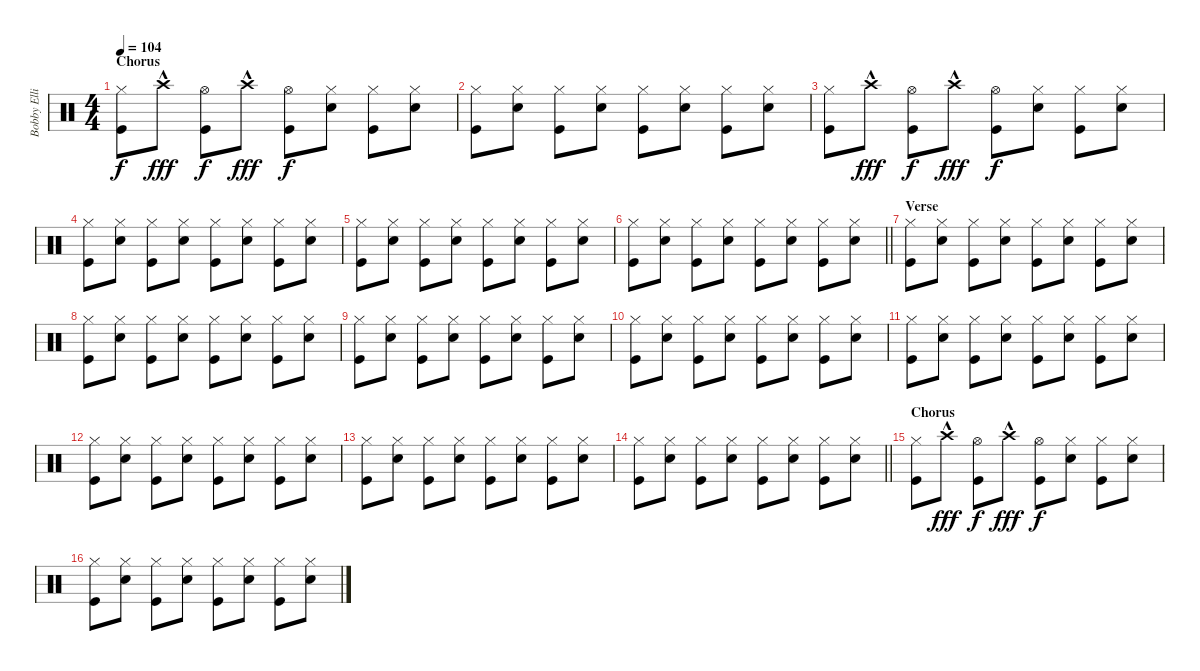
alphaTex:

\track ("Bobby Elliott" "Bobby Elli") {instrument percussion}
\staff {score}
\articulation defaults
\ts (4 4)
\section ("" "Chorus")
\tempo 104
\clef neutral
\ks c
("Hi-Hat (closed)" "Kick (hit)").8{dy f} "Crash high (hit)"{hac}.8{dy fff} ("Hi-Hat (open)" "Kick (hit)").8{dy f} "Crash high (hit)"{hac}.8{dy fff} ("Hi-Hat (open)" "Kick (hit)").8{dy f} ("Hi-Hat (closed)" "Snare (hit) 2").8 ("Hi-Hat (closed)" "Kick (hit)").8 ("Hi-Hat (closed)" "Snare (hit) 2").8 |
("Hi-Hat (closed)" "Kick (hit)").8 ("Hi-Hat (closed)" "Snare (hit) 2").8 ("Hi-Hat (closed)" "Kick (hit)").8 ("Hi-Hat (closed)" "Snare (hit) 2").8 ("Hi-Hat (closed)" "Kick (hit)").8 ("Hi-Hat (closed)" "Snare (hit) 2").8 ("Hi-Hat (closed)" "Kick (hit)").8 ("Hi-Hat (closed)" "Snare (hit) 2").8 |
("Hi-Hat (closed)" "Kick (hit)").8 "Crash high (hit)"{hac}.8{dy fff} ("Hi-Hat (open)" "Kick (hit)").8{dy f} "Crash high (hit)"{hac}.8{dy fff} ("Hi-Hat (open)" "Kick (hit)").8{dy f} ("Hi-Hat (closed)" "Snare (hit) 2").8 ("Hi-Hat (closed)" "Kick (hit)").8 ("Hi-Hat (closed)" "Snare (hit) 2").8 |
("Hi-Hat (closed)" "Kick (hit)").8 ("Hi-Hat (closed)" "Snare (hit) 2").8 ("Hi-Hat (closed)" "Kick (hit)").8 ("Hi-Hat (closed)" "Snare (hit) 2").8 ("Hi-Hat (closed)" "Kick (hit)").8 ("Hi-Hat (closed)" "Snare (hit) 2").8 ("Hi-Hat (closed)" "Kick (hit)").8 ("Hi-Hat (closed)" "Snare (hit) 2").8 |
("Hi-Hat (closed)" "Kick (hit)").8 ("Hi-Hat (closed)" "Snare (hit) 2").8 ("Hi-Hat (closed)" "Kick (hit)").8 ("Hi-Hat (closed)" "Snare (hit) 2").8 ("Hi-Hat (closed)" "Kick (hit)").8 ("Hi-Hat (closed)" "Snare (hit) 2").8 ("Hi-Hat (closed)" "Kick (hit)").8 ("Hi-Hat (closed)" "Snare (hit) 2").8 |
\barLineRight lightlight
("Hi-Hat (closed)" "Kick (hit)").8 ("Hi-Hat (closed)" "Snare (hit) 2").8 ("Hi-Hat (closed)" "Kick (hit)").8 ("Hi-Hat (closed)" "Snare (hit) 2").8 ("Hi-Hat (closed)" "Kick (hit)").8 ("Hi-Hat (closed)" "Snare (hit) 2").8 ("Hi-Hat (closed)" "Kick (hit)").8 ("Hi-Hat (closed)" "Snare (hit) 2").8 |
\section ("" "Verse")
("Hi-Hat (closed)" "Kick (hit)").8 ("Hi-Hat (closed)" "Snare (hit) 2").8 ("Hi-Hat (closed)" "Kick (hit)").8 ("Hi-Hat (closed)" "Snare (hit) 2").8 ("Hi-Hat (closed)" "Kick (hit)").8 ("Hi-Hat (closed)" "Snare (hit) 2").8 ("Hi-Hat (closed)" "Kick (hit)").8 ("Hi-Hat (closed)" "Snare (hit) 2").8 |
("Hi-Hat (closed)" "Kick (hit)").8 ("Hi-Hat (closed)" "Snare (hit) 2").8 ("Hi-Hat (closed)" "Kick (hit)").8 ("Hi-Hat (closed)" "Snare (hit) 2").8 ("Hi-Hat (closed)" "Kick (hit)").8 ("Hi-Hat (closed)" "Snare (hit) 2").8 ("Hi-Hat (closed)" "Kick (hit)").8 ("Hi-Hat (closed)" "Snare (hit) 2").8 |
("Hi-Hat (closed)" "Kick (hit)").8 ("Hi-Hat (closed)" "Snare (hit) 2").8 ("Hi-Hat (closed)" "Kick (hit)").8 ("Hi-Hat (closed)" "Snare (hit) 2").8 ("Hi-Hat (closed)" "Kick (hit)").8 ("Hi-Hat (closed)" "Snare (hit) 2").8 ("Hi-Hat (closed)" "Kick (hit)").8 ("Hi-Hat (closed)" "Snare (hit) 2").8 |
("Hi-Hat (closed)" "Kick (hit)").8 ("Hi-Hat (closed)" "Snare (hit) 2").8 ("Hi-Hat (closed)" "Kick (hit)").8 ("Hi-Hat (closed)" "Snare (hit) 2").8 ("Hi-Hat (closed)" "Kick (hit)").8 ("Hi-Hat (closed)" "Snare (hit) 2").8 ("Hi-Hat (closed)" "Kick (hit)").8 ("Hi-Hat (closed)" "Snare (hit) 2").8 |
("Hi-Hat (closed)" "Kick (hit)").8 ("Hi-Hat (closed)" "Snare (hit) 2").8 ("Hi-Hat (closed)" "Kick (hit)").8 ("Hi-Hat (closed)" "Snare (hit) 2").8 ("Hi-Hat (closed)" "Kick (hit)").8 ("Hi-Hat (closed)" "Snare (hit) 2").8 ("Hi-Hat (closed)" "Kick (hit)").8 ("Hi-Hat (closed)" "Snare (hit) 2").8 |
("Hi-Hat (closed)" "Kick (hit)").8 ("Hi-Hat (closed)" "Snare (hit) 2").8 ("Hi-Hat (closed)" "Kick (hit)").8 ("Hi-Hat (closed)" "Snare (hit) 2").8 ("Hi-Hat (closed)" "Kick (hit)").8 ("Hi-Hat (closed)" "Snare (hit) 2").8 ("Hi-Hat (closed)" "Kick (hit)").8 ("Hi-Hat (closed)" "Snare (hit) 2").8 |
("Hi-Hat (closed)" "Kick (hit)").8 ("Hi-Hat (closed)" "Snare (hit) 2").8 ("Hi-Hat (closed)" "Kick (hit)").8 ("Hi-Hat (closed)" "Snare (hit) 2").8 ("Hi-Hat (closed)" "Kick (hit)").8 ("Hi-Hat (closed)" "Snare (hit) 2").8 ("Hi-Hat (closed)" "Kick (hit)").8 ("Hi-Hat (closed)" "Snare (hit) 2").8 |
\barLineRight lightlight
("Hi-Hat (closed)" "Kick (hit)").8 ("Hi-Hat (closed)" "Snare (hit) 2").8 ("Hi-Hat (closed)" "Kick (hit)").8 ("Hi-Hat (closed)" "Snare (hit) 2").8 ("Hi-Hat (closed)" "Kick (hit)").8 ("Hi-Hat (closed)" "Snare (hit) 2").8 ("Hi-Hat (closed)" "Kick (hit)").8 ("Hi-Hat (closed)" "Snare (hit) 2").8 |
\section ("" "Chorus")
("Hi-Hat (closed)" "Kick (hit)").8 "Crash high (hit)"{hac}.8{dy fff} ("Hi-Hat (open)" "Kick (hit)").8{dy f} "Crash high (hit)"{hac}.8{dy fff} ("Hi-Hat (open)" "Kick (hit)").8{dy f} ("Hi-Hat (closed)" "Snare (hit) 2").8 ("Hi-Hat (closed)" "Kick (hit)").8 ("Hi-Hat (closed)" "Snare (hit) 2").8 |
("Hi-Hat (closed)" "Kick (hit)").8 ("Hi-Hat (closed)" "Snare (hit) 2").8 ("Hi-Hat (closed)" "Kick (hit)").8 ("Hi-Hat (closed)" "Snare (hit) 2").8 ("Hi-Hat (closed)" "Kick (hit)").8 ("Hi-Hat (closed)" "Snare (hit) 2").8 ("Hi-Hat (closed)" "Kick (hit)").8 ("Hi-Hat (closed)" "Snare (hit) 2").8
